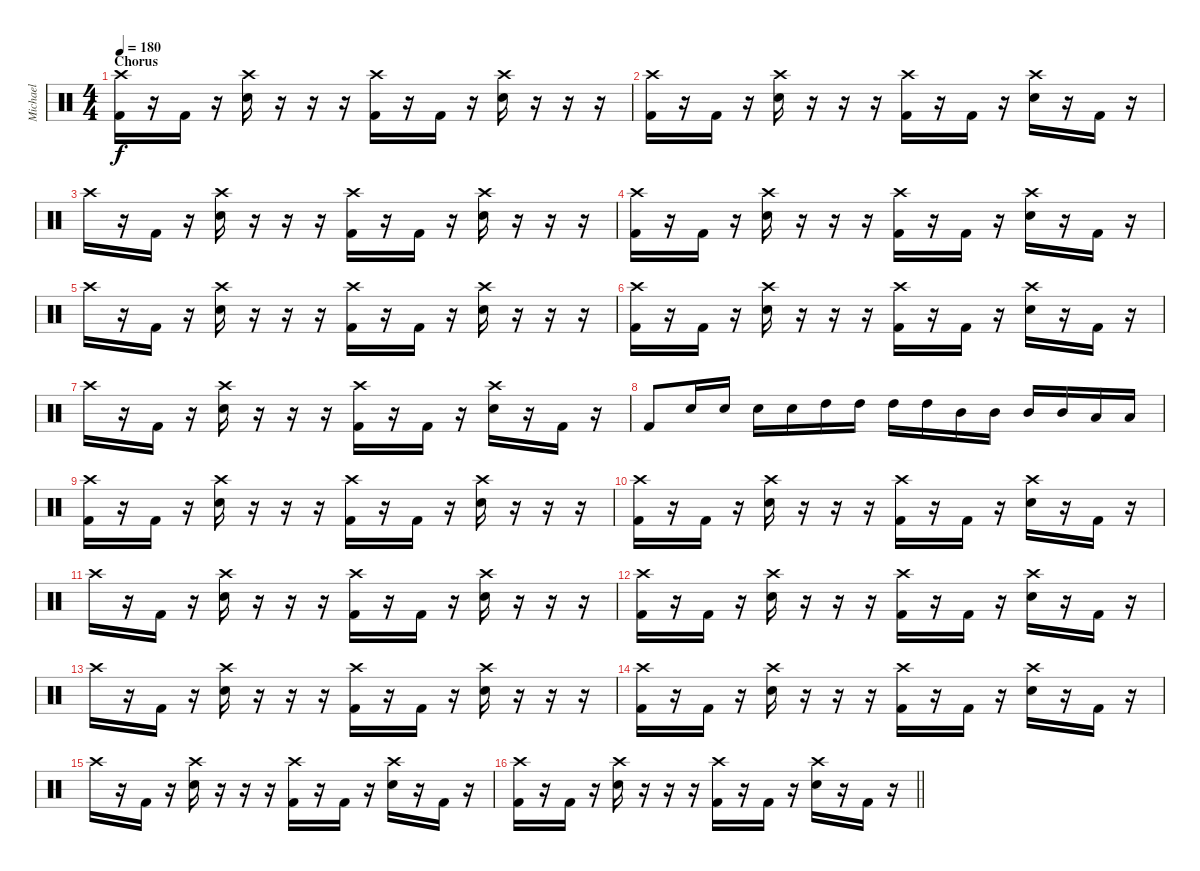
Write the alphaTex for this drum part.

\track ("Michael" "Michael") {instrument percussion}
\staff {score}
\articulation defaults
\ts (4 4)
\section ("" "Chorus")
\tempo 180
\clef neutral
\ks c
("Crash high (hit)" "Kick (hit) 2").16{dy f} r.16 "Kick (hit) 2".16 r.16 ("Crash high (hit)" "Electric Snare (hit)").16 r.16 r.16 r.16 ("Crash high (hit)" "Kick (hit) 2").16 r.16 "Kick (hit) 2".16 r.16 ("Crash high (hit)" "Electric Snare (hit)").16 r.16 r.16 r.16 |
("Crash high (hit)" "Kick (hit) 2").16 r.16 "Kick (hit) 2".16 r.16 ("Crash high (hit)" "Electric Snare (hit)").16 r.16 r.16 r.16 ("Crash high (hit)" "Kick (hit) 2").16 r.16 "Kick (hit) 2".16 r.16 ("Crash high (hit)" "Electric Snare (hit)").16 r.16 "Kick (hit) 2".16 r.16 |
"Crash high (hit)".16 r.16 "Kick (hit) 2".16 r.16 ("Crash high (hit)" "Electric Snare (hit)").16 r.16 r.16 r.16 ("Crash high (hit)" "Kick (hit) 2").16 r.16 "Kick (hit) 2".16 r.16 ("Crash high (hit)" "Electric Snare (hit)").16 r.16 r.16 r.16 |
("Crash high (hit)" "Kick (hit) 2").16 r.16 "Kick (hit) 2".16 r.16 ("Crash high (hit)" "Electric Snare (hit)").16 r.16 r.16 r.16 ("Crash high (hit)" "Kick (hit) 2").16 r.16 "Kick (hit) 2".16 r.16 ("Crash high (hit)" "Electric Snare (hit)").16 r.16 "Kick (hit) 2".16 r.16 |
"Crash high (hit)".16 r.16 "Kick (hit) 2".16 r.16 ("Crash high (hit)" "Electric Snare (hit)").16 r.16 r.16 r.16 ("Crash high (hit)" "Kick (hit) 2").16 r.16 "Kick (hit) 2".16 r.16 ("Crash high (hit)" "Electric Snare (hit)").16 r.16 r.16 r.16 |
("Crash high (hit)" "Kick (hit) 2").16 r.16 "Kick (hit) 2".16 r.16 ("Crash high (hit)" "Electric Snare (hit)").16 r.16 r.16 r.16 ("Crash high (hit)" "Kick (hit) 2").16 r.16 "Kick (hit) 2".16 r.16 ("Crash high (hit)" "Electric Snare (hit)").16 r.16 "Kick (hit) 2".16 r.16 |
"Crash high (hit)".16 r.16 "Kick (hit) 2".16 r.16 ("Crash high (hit)" "Electric Snare (hit)").16 r.16 r.16 r.16 ("Crash high (hit)" "Kick (hit) 2").16 r.16 "Kick (hit) 2".16 r.16 ("Crash high (hit)" "Electric Snare (hit)").16 r.16 "Kick (hit) 2".16 r.16 |
"Kick (hit) 2".8 "Electric Snare (hit)".16 "Electric Snare (hit)".16 "Electric Snare (hit)".16 "Electric Snare (hit)".16 "High Tom (hit)".16 "High Tom (hit)".16 "High Tom (hit)".16 "High Tom (hit)".16 "Mid Tom (hit)".16 "Mid Tom (hit)".16 "Mid Tom (hit)".16 "Mid Tom (hit)".16 "Low Tom (hit)".16 "Low Tom (hit)".16 |
("Crash high (hit)" "Kick (hit) 2").16 r.16 "Kick (hit) 2".16 r.16 ("Crash high (hit)" "Electric Snare (hit)").16 r.16 r.16 r.16 ("Crash high (hit)" "Kick (hit) 2").16 r.16 "Kick (hit) 2".16 r.16 ("Crash high (hit)" "Electric Snare (hit)").16 r.16 r.16 r.16 |
("Crash high (hit)" "Kick (hit) 2").16 r.16 "Kick (hit) 2".16 r.16 ("Crash high (hit)" "Electric Snare (hit)").16 r.16 r.16 r.16 ("Crash high (hit)" "Kick (hit) 2").16 r.16 "Kick (hit) 2".16 r.16 ("Crash high (hit)" "Electric Snare (hit)").16 r.16 "Kick (hit) 2".16 r.16 |
"Crash high (hit)".16 r.16 "Kick (hit) 2".16 r.16 ("Crash high (hit)" "Electric Snare (hit)").16 r.16 r.16 r.16 ("Crash high (hit)" "Kick (hit) 2").16 r.16 "Kick (hit) 2".16 r.16 ("Crash high (hit)" "Electric Snare (hit)").16 r.16 r.16 r.16 |
("Crash high (hit)" "Kick (hit) 2").16 r.16 "Kick (hit) 2".16 r.16 ("Crash high (hit)" "Electric Snare (hit)").16 r.16 r.16 r.16 ("Crash high (hit)" "Kick (hit) 2").16 r.16 "Kick (hit) 2".16 r.16 ("Crash high (hit)" "Electric Snare (hit)").16 r.16 "Kick (hit) 2".16 r.16 |
"Crash high (hit)".16 r.16 "Kick (hit) 2".16 r.16 ("Crash high (hit)" "Electric Snare (hit)").16 r.16 r.16 r.16 ("Crash high (hit)" "Kick (hit) 2").16 r.16 "Kick (hit) 2".16 r.16 ("Crash high (hit)" "Electric Snare (hit)").16 r.16 r.16 r.16 |
("Crash high (hit)" "Kick (hit) 2").16 r.16 "Kick (hit) 2".16 r.16 ("Crash high (hit)" "Electric Snare (hit)").16 r.16 r.16 r.16 ("Crash high (hit)" "Kick (hit) 2").16 r.16 "Kick (hit) 2".16 r.16 ("Crash high (hit)" "Electric Snare (hit)").16 r.16 "Kick (hit) 2".16 r.16 |
"Crash high (hit)".16 r.16 "Kick (hit) 2".16 r.16 ("Crash high (hit)" "Electric Snare (hit)").16 r.16 r.16 r.16 ("Crash high (hit)" "Kick (hit) 2").16 r.16 "Kick (hit) 2".16 r.16 ("Crash high (hit)" "Electric Snare (hit)").16 r.16 "Kick (hit) 2".16 r.16 |
\barLineRight lightlight
("Crash high (hit)" "Kick (hit) 2").16 r.16 "Kick (hit) 2".16 r.16 ("Crash high (hit)" "Electric Snare (hit)").16 r.16 r.16 r.16 ("Crash high (hit)" "Kick (hit) 2").16 r.16 "Kick (hit) 2".16 r.16 ("Crash high (hit)" "Electric Snare (hit)").16 r.16 "Kick (hit) 2".16 r.16
